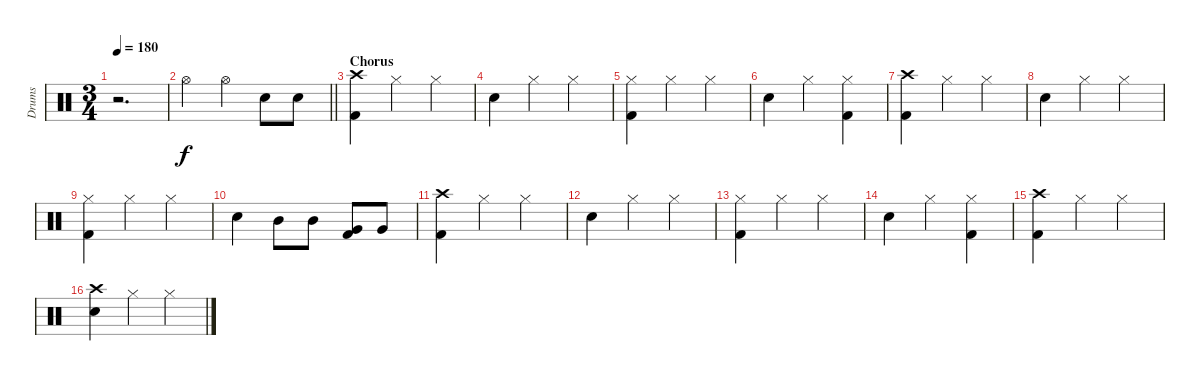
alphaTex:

\track ("Drums" "Drums") {instrument percussion}
\staff {score}
\articulation defaults
\ts (3 4)
\tempo 180
\clef neutral
\ks c
r.2{d dy f} |
\barLineRight lightlight "Hi-Hat (open)".4 "Hi-Hat (open)".4 "Snare (hit) 2".8 "Snare (hit) 2".8
|
\section ("" "Chorus")
("Crash high (hit)" "Kick (hit) 2").4 "Hi-Hat (closed)".4 "Hi-Hat (closed)".4 |
"Snare (hit) 2".4 "Hi-Hat (closed)".4 "Hi-Hat (closed)".4 |
("Hi-Hat (closed)" "Kick (hit) 2").4 "Hi-Hat (closed)".4 "Hi-Hat (closed)".4 |
"Snare (hit) 2".4 "Hi-Hat (closed)".4 ("Hi-Hat (closed)" "Kick (hit) 2").4 |
("Crash high (hit)" "Kick (hit) 2").4 "Hi-Hat (closed)".4 "Hi-Hat (closed)".4 |
"Snare (hit) 2".4 "Hi-Hat (closed)".4 "Hi-Hat (closed)".4 |
("Hi-Hat (closed)" "Kick (hit) 2").4 "Hi-Hat (closed)".4 "Hi-Hat (closed)".4 |
"Snare (hit) 2".4 "Mid Tom (hit)".8 "Mid Tom (hit)".8 ("Very Low Tom (hit)" "Kick (hit) 2").8 "Very Low Tom (hit)".8 |
("Crash high (hit)" "Kick (hit) 2").4 "Hi-Hat (closed)".4 "Hi-Hat (closed)".4 |
"Snare (hit) 2".4 "Hi-Hat (closed)".4 "Hi-Hat (closed)".4 |
("Hi-Hat (closed)" "Kick (hit) 2").4 "Hi-Hat (closed)".4 "Hi-Hat (closed)".4 |
"Snare (hit) 2".4 "Hi-Hat (closed)".4 ("Hi-Hat (closed)" "Kick (hit) 2").4 |
("Crash high (hit)" "Kick (hit) 2").4 "Hi-Hat (closed)".4 "Hi-Hat (closed)".4 |
("Snare (hit) 2" "Crash high (hit)").4 "Hi-Hat (closed)".4 "Hi-Hat (closed)".4
